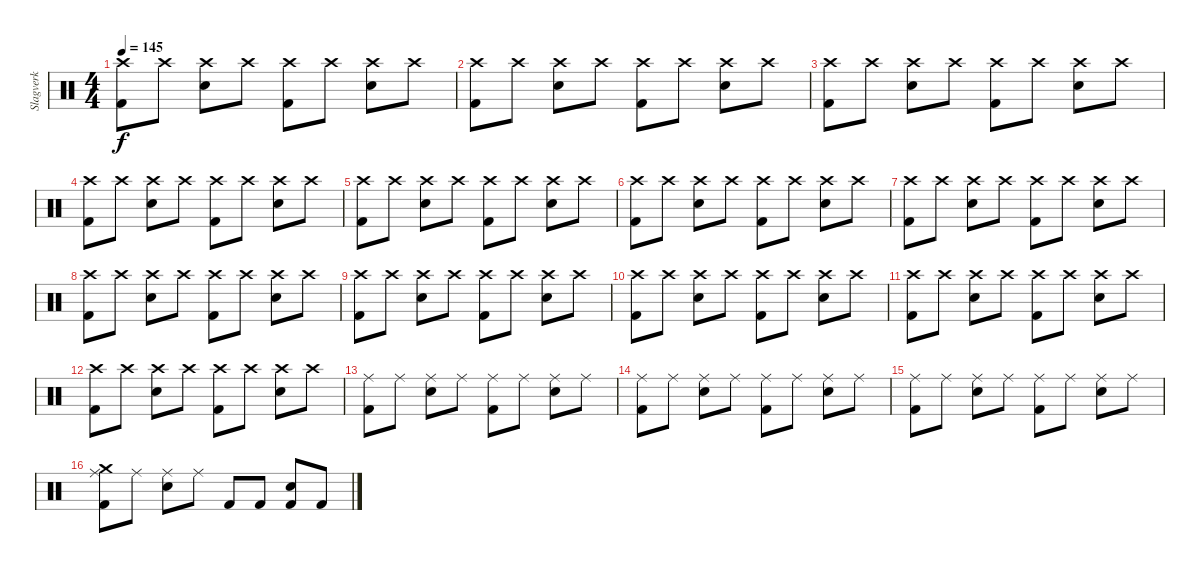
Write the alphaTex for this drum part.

\track ("Slagverk" "Slagverk") {instrument percussion}
\staff {score}
\articulation defaults
\ts (4 4)
\tempo 145
\clef neutral
\ks c
("Crash high (hit)" "Kick (hit) 2").8{dy f} "Crash high (hit)".8 ("Crash high (hit)" "Snare (hit) 2").8 "Crash high (hit)".8 ("Crash high (hit)" "Kick (hit) 2").8 "Crash high (hit)".8 ("Crash high (hit)" "Snare (hit) 2").8 "Crash high (hit)".8 |
("Crash high (hit)" "Kick (hit) 2").8 "Crash high (hit)".8 ("Crash high (hit)" "Snare (hit) 2").8 "Crash high (hit)".8 ("Crash high (hit)" "Kick (hit) 2").8 "Crash high (hit)".8 ("Crash high (hit)" "Snare (hit) 2").8 "Crash high (hit)".8 |
("Crash high (hit)" "Kick (hit) 2").8 "Crash high (hit)".8 ("Crash high (hit)" "Snare (hit) 2").8 "Crash high (hit)".8 ("Crash high (hit)" "Kick (hit) 2").8 "Crash high (hit)".8 ("Crash high (hit)" "Snare (hit) 2").8 "Crash high (hit)".8 |
("Crash high (hit)" "Kick (hit) 2").8 "Crash high (hit)".8 ("Crash high (hit)" "Snare (hit) 2").8 "Crash high (hit)".8 ("Crash high (hit)" "Kick (hit) 2").8 "Crash high (hit)".8 ("Crash high (hit)" "Snare (hit) 2").8 "Crash high (hit)".8 |
("Crash high (hit)" "Kick (hit) 2").8 "Crash high (hit)".8 ("Crash high (hit)" "Snare (hit) 2").8 "Crash high (hit)".8 ("Crash high (hit)" "Kick (hit) 2").8 "Crash high (hit)".8 ("Crash high (hit)" "Snare (hit) 2").8 "Crash high (hit)".8 |
("Crash high (hit)" "Kick (hit) 2").8 "Crash high (hit)".8 ("Crash high (hit)" "Snare (hit) 2").8 "Crash high (hit)".8 ("Crash high (hit)" "Kick (hit) 2").8 "Crash high (hit)".8 ("Crash high (hit)" "Snare (hit) 2").8 "Crash high (hit)".8 |
("Crash high (hit)" "Kick (hit) 2").8 "Crash high (hit)".8 ("Crash high (hit)" "Snare (hit) 2").8 "Crash high (hit)".8 ("Crash high (hit)" "Kick (hit) 2").8 "Crash high (hit)".8 ("Crash high (hit)" "Snare (hit) 2").8 "Crash high (hit)".8 |
("Crash high (hit)" "Kick (hit) 2").8 "Crash high (hit)".8 ("Crash high (hit)" "Snare (hit) 2").8 "Crash high (hit)".8 ("Crash high (hit)" "Kick (hit) 2").8 "Crash high (hit)".8 ("Crash high (hit)" "Snare (hit) 2").8 "Crash high (hit)".8 |
("Crash high (hit)" "Kick (hit) 2").8 "Crash high (hit)".8 ("Crash high (hit)" "Snare (hit) 2").8 "Crash high (hit)".8 ("Crash high (hit)" "Kick (hit) 2").8 "Crash high (hit)".8 ("Crash high (hit)" "Snare (hit) 2").8 "Crash high (hit)".8 |
("Crash high (hit)" "Kick (hit) 2").8 "Crash high (hit)".8 ("Crash high (hit)" "Snare (hit) 2").8 "Crash high (hit)".8 ("Crash high (hit)" "Kick (hit) 2").8 "Crash high (hit)".8 ("Crash high (hit)" "Snare (hit) 2").8 "Crash high (hit)".8 |
("Crash high (hit)" "Kick (hit) 2").8 "Crash high (hit)".8 ("Crash high (hit)" "Snare (hit) 2").8 "Crash high (hit)".8 ("Crash high (hit)" "Kick (hit) 2").8 "Crash high (hit)".8 ("Crash high (hit)" "Snare (hit) 2").8 "Crash high (hit)".8 |
("Crash high (hit)" "Kick (hit) 2").8 "Crash high (hit)".8 ("Crash high (hit)" "Snare (hit) 2").8 "Crash high (hit)".8 ("Crash high (hit)" "Kick (hit) 2").8 "Crash high (hit)".8 ("Crash high (hit)" "Snare (hit) 2").8 "Crash high (hit)".8 |
("Ride (middle)" "Kick (hit) 2").8 "Ride (middle)".8 ("Ride (middle)" "Snare (hit) 2").8 "Ride (middle)".8 ("Ride (middle)" "Kick (hit) 2").8 "Ride (middle)".8 ("Ride (middle)" "Snare (hit) 2").8 "Ride (middle)".8 |
("Ride (middle)" "Kick (hit) 2").8 "Ride (middle)".8 ("Ride (middle)" "Snare (hit) 2").8 "Ride (middle)".8 ("Ride (middle)" "Kick (hit) 2").8 "Ride (middle)".8 ("Ride (middle)" "Snare (hit) 2").8 "Ride (middle)".8 |
("Ride (middle)" "Kick (hit) 2").8 "Ride (middle)".8 ("Ride (middle)" "Snare (hit) 2").8 "Ride (middle)".8 ("Ride (middle)" "Kick (hit) 2").8 "Ride (middle)".8 ("Ride (middle)" "Snare (hit) 2").8 "Ride (middle)".8 |
("Ride (middle)" "Crash medium (hit)" "Kick (hit) 2").8 "Ride (middle)".8 ("Ride (middle)" "Snare (hit) 2").8 "Ride (middle)".8 "Kick (hit) 2".8 "Kick (hit) 2".8 ("Snare (hit) 2" "Kick (hit) 2").8 "Kick (hit) 2".8
